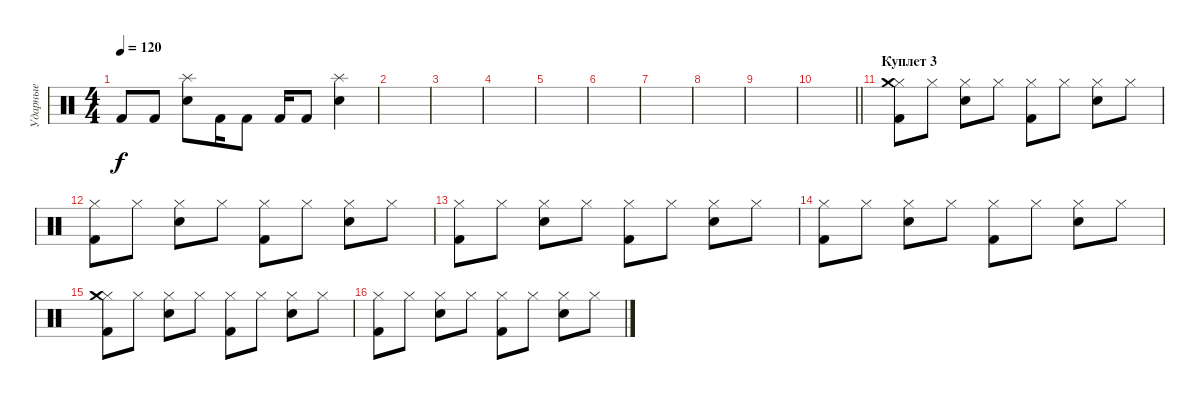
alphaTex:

\track ("Ударные" "Ударные") {instrument percussion}
\staff {score}
\articulation defaults
\ts (4 4)
\tempo 120
\clef neutral
\ks c "Kick (hit) 2".8{dy f} "Kick (hit) 2".8
("Electric Snare (hit)" "Splash (hit)").8 "Kick (hit) 2".16 "Kick (hit) 2".8 "Kick (hit) 2".16 "Kick (hit) 2".8 ("Electric Snare (hit)" "Splash (hit)").4 |
|
|
|
|
|
|
|
|
\barLineRight lightlight
|
\section ("" "Куплет 3")
("Hi-Hat (closed)" "Kick (hit) 2" "Crash medium (hit)").8 "Hi-Hat (closed)".8 ("Hi-Hat (closed)" "Electric Snare (hit)").8 "Hi-Hat (closed)".8 ("Hi-Hat (closed)" "Kick (hit) 2").8 "Hi-Hat (closed)".8 ("Hi-Hat (closed)" "Electric Snare (hit)").8 "Hi-Hat (closed)".8 |
("Hi-Hat (closed)" "Kick (hit) 2").8 "Hi-Hat (closed)".8 ("Hi-Hat (closed)" "Electric Snare (hit)").8 "Hi-Hat (closed)".8 ("Hi-Hat (closed)" "Kick (hit) 2").8 "Hi-Hat (closed)".8 ("Hi-Hat (closed)" "Electric Snare (hit)").8 "Hi-Hat (closed)".8 |
("Hi-Hat (closed)" "Kick (hit) 2").8 "Hi-Hat (closed)".8 ("Hi-Hat (closed)" "Electric Snare (hit)").8 "Hi-Hat (closed)".8 ("Hi-Hat (closed)" "Kick (hit) 2").8 "Hi-Hat (closed)".8 ("Hi-Hat (closed)" "Electric Snare (hit)").8 "Hi-Hat (closed)".8 |
("Hi-Hat (closed)" "Kick (hit) 2").8 "Hi-Hat (closed)".8 ("Hi-Hat (closed)" "Electric Snare (hit)").8 "Hi-Hat (closed)".8 ("Hi-Hat (closed)" "Kick (hit) 2").8 "Hi-Hat (closed)".8 ("Hi-Hat (closed)" "Electric Snare (hit)").8 "Hi-Hat (closed)".8 |
("Hi-Hat (closed)" "Kick (hit) 2" "Crash medium (hit)").8 "Hi-Hat (closed)".8 ("Hi-Hat (closed)" "Electric Snare (hit)").8 "Hi-Hat (closed)".8 ("Hi-Hat (closed)" "Kick (hit) 2").8 "Hi-Hat (closed)".8 ("Hi-Hat (closed)" "Electric Snare (hit)").8 "Hi-Hat (closed)".8 |
("Hi-Hat (closed)" "Kick (hit) 2").8 "Hi-Hat (closed)".8 ("Hi-Hat (closed)" "Electric Snare (hit)").8 "Hi-Hat (closed)".8 ("Hi-Hat (closed)" "Kick (hit) 2").8 "Hi-Hat (closed)".8 ("Hi-Hat (closed)" "Electric Snare (hit)").8 "Hi-Hat (closed)".8
